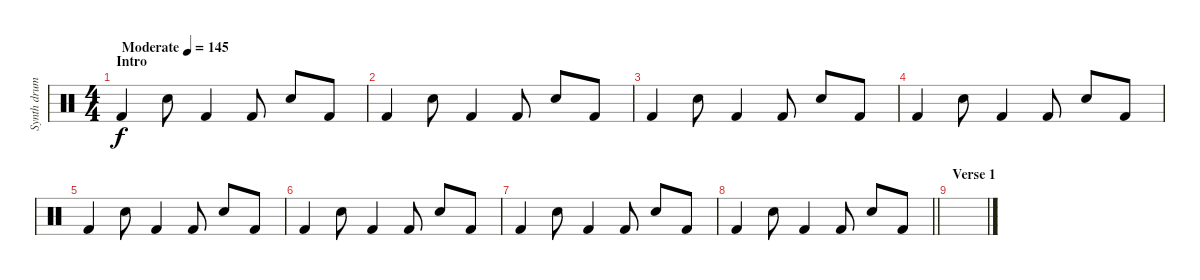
\track ("Synth drums" "Synth drum") {instrument percussion}
\staff {score}
\articulation defaults
\ts (4 4)
\section ("" "Intro")
\tempo (145 "Moderate")
\clef neutral
\ks c "Kick (hit) 2".4{dy f} "Snare (hit) 2".8 "Kick (hit) 2".4 "Kick (hit) 2".8 "Snare (hit) 2".8 "Kick (hit) 2".8
|
"Kick (hit) 2".4 "Snare (hit) 2".8 "Kick (hit) 2".4 "Kick (hit) 2".8 "Snare (hit) 2".8 "Kick (hit) 2".8 |
"Kick (hit) 2".4 "Snare (hit) 2".8 "Kick (hit) 2".4 "Kick (hit) 2".8 "Snare (hit) 2".8 "Kick (hit) 2".8 |
"Kick (hit) 2".4 "Snare (hit) 2".8 "Kick (hit) 2".4 "Kick (hit) 2".8 "Snare (hit) 2".8 "Kick (hit) 2".8 |
"Kick (hit) 2".4 "Snare (hit) 2".8 "Kick (hit) 2".4 "Kick (hit) 2".8 "Snare (hit) 2".8 "Kick (hit) 2".8 |
"Kick (hit) 2".4 "Snare (hit) 2".8 "Kick (hit) 2".4 "Kick (hit) 2".8 "Snare (hit) 2".8 "Kick (hit) 2".8 |
"Kick (hit) 2".4 "Snare (hit) 2".8 "Kick (hit) 2".4 "Kick (hit) 2".8 "Snare (hit) 2".8 "Kick (hit) 2".8 |
\barLineRight lightlight "Kick (hit) 2".4 "Snare (hit) 2".8 "Kick (hit) 2".4 "Kick (hit) 2".8 "Snare (hit) 2".8 "Kick (hit) 2".8
|
\section ("" "Verse 1")
